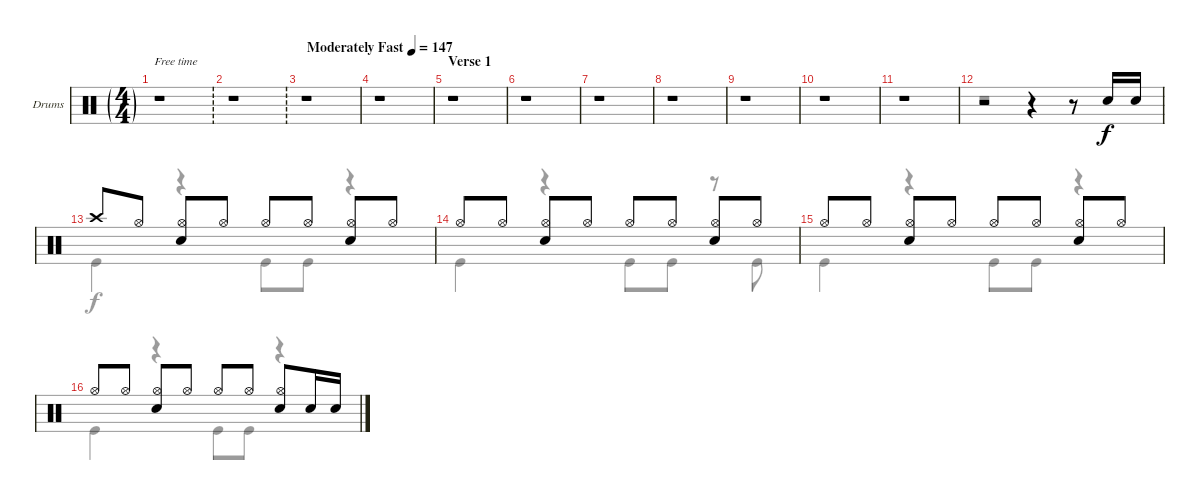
\defaultSystemsLayout 4
\bracketExtendMode groupsimilarinstruments
\firstSystemTrackNameOrientation horizontal
\otherSystemsTrackNameOrientation horizontal
\track ("Drums" "Drums") {instrument percussion}
\staff {score}
\articulation defaults
\voice
\ts (4 4)
\ft
\tempo (60 "Moderately Fast" hide)
\clef neutral
\ks c
r.1{dy f} |
\ft
\tempo (147 0.875 hide)
r.1 |
\tempo (147 "Moderately Fast")
r.1 |
r.1 |
\section ("" "Verse 1")
r.1 |
r.1 |
r.1 |
r.1 |
r.1 |
r.1 |
r.1 |
r.2 r.4 r.8 "Snare (hit) 2".16 "Snare (hit) 2".16 |
"Crash high (hit)".8 "Hi-Hat (open)".8 ("Hi-Hat (open)" "Snare (hit) 2").8 "Hi-Hat (open)".8 "Hi-Hat (open)".8 "Hi-Hat (open)".8 ("Hi-Hat (open)" "Snare (hit) 2").8 "Hi-Hat (open)".8 |
"Hi-Hat (open)".8 "Hi-Hat (open)".8 ("Hi-Hat (open)" "Snare (hit) 2").8 "Hi-Hat (open)".8 "Hi-Hat (open)".8 "Hi-Hat (open)".8 ("Hi-Hat (open)" "Snare (hit) 2").8 "Hi-Hat (open)".8 |
"Hi-Hat (open)".8 "Hi-Hat (open)".8 ("Hi-Hat (open)" "Snare (hit) 2").8 "Hi-Hat (open)".8 "Hi-Hat (open)".8 "Hi-Hat (open)".8 ("Hi-Hat (open)" "Snare (hit) 2").8 "Hi-Hat (open)".8 |
"Hi-Hat (open)".8 "Hi-Hat (open)".8 ("Hi-Hat (open)" "Snare (hit) 2").8 "Hi-Hat (open)".8 "Hi-Hat (open)".8 "Hi-Hat (open)".8 ("Hi-Hat (open)" "Snare (hit) 2").8 "Snare (hit) 2".16 "Snare (hit) 2".16
\voice
\clef neutral
\ottava regular
\simile none
\ks c
r.1{dy f} |
r.1 |
r.1 |
r.1 |
r.1 |
r.1 |
r.1 |
r.1 |
r.1 |
r.1 |
r.1 |
r.1 |
"Kick (hit)".4 r.4 "Kick (hit)".8 "Kick (hit)".8 r.4 |
"Kick (hit)".4 r.4 "Kick (hit)".8 "Kick (hit)".8 r.8 "Kick (hit)".8 |
"Kick (hit)".4 r.4 "Kick (hit)".8 "Kick (hit)".8 r.4 |
"Kick (hit)".4 r.4 "Kick (hit)".8 "Kick (hit)".8 r.4
